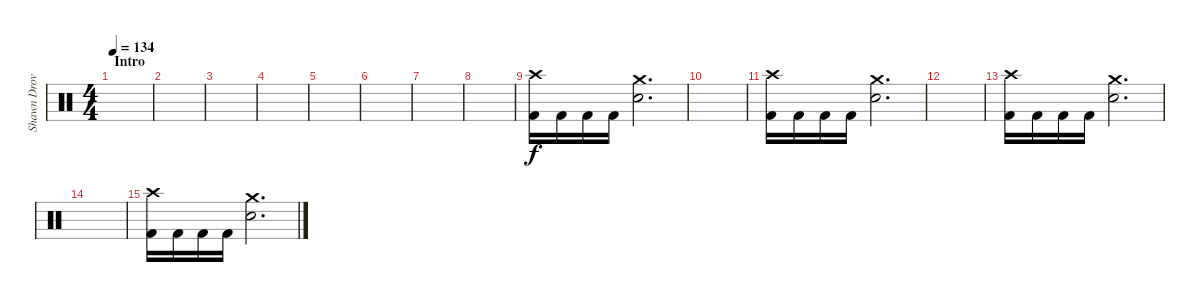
\track ("Shawn Drover" "Shawn Drov") {instrument percussion}
\staff {score}
\articulation defaults
\ts (4 4)
\section ("" "Intro")
\tempo 134
\clef neutral
\ks c
|
|
|
|
|
|
|
|
("Crash high (hit)" "Kick (hit) 2").16 "Kick (hit) 2".16 "Kick (hit) 2".16 "Kick (hit) 2".16 ("Crash medium (hit)" "Snare (hit) 2").2{d} |
|
("Crash high (hit)" "Kick (hit) 2").16 "Kick (hit) 2".16 "Kick (hit) 2".16 "Kick (hit) 2".16 ("Crash medium (hit)" "Snare (hit) 2").2{d} |
|
("Crash high (hit)" "Kick (hit) 2").16 "Kick (hit) 2".16 "Kick (hit) 2".16 "Kick (hit) 2".16 ("Crash medium (hit)" "Snare (hit) 2").2{d} |
|
("Crash high (hit)" "Kick (hit) 2").16 "Kick (hit) 2".16 "Kick (hit) 2".16 "Kick (hit) 2".16 ("Crash medium (hit)" "Snare (hit) 2").2{d}
